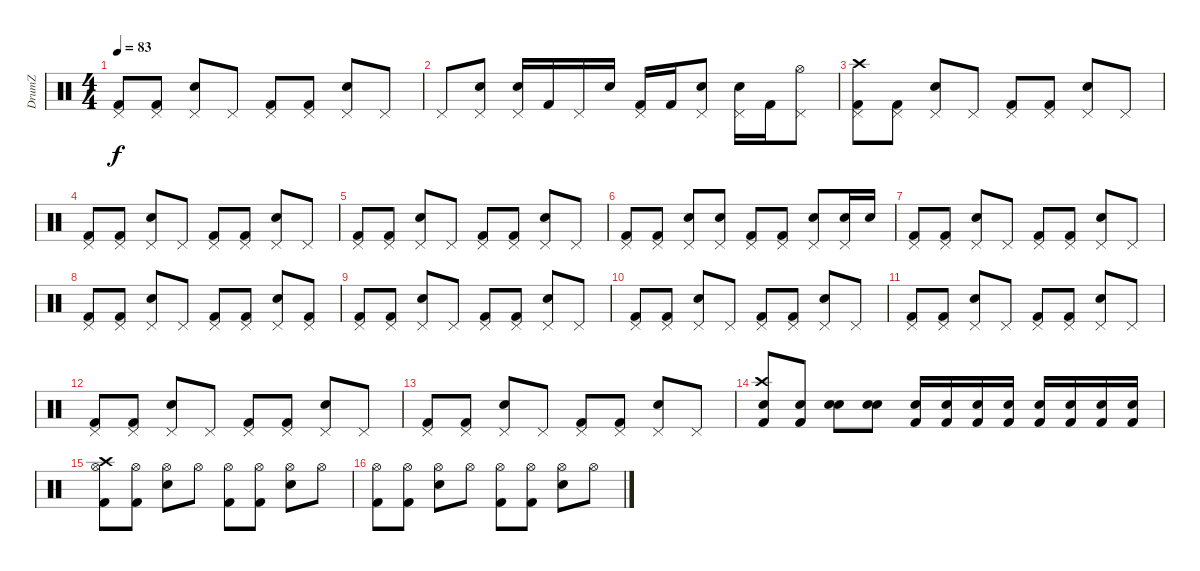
\track ("DrumZ" "DrumZ") {instrument percussion}
\staff {score}
\articulation defaults
\ts (4 4)
\tempo 83
\clef neutral
\ks c
("Pedal Hi-Hat (hit)" "Kick (hit) 2").8{dy f} ("Pedal Hi-Hat (hit)" "Kick (hit) 2").8 ("Pedal Hi-Hat (hit)" "Electric Snare (hit)").8 "Pedal Hi-Hat (hit)".8 ("Pedal Hi-Hat (hit)" "Kick (hit) 2").8 ("Pedal Hi-Hat (hit)" "Kick (hit) 2").8 ("Pedal Hi-Hat (hit)" "Electric Snare (hit)").8 "Pedal Hi-Hat (hit)".8 |
"Pedal Hi-Hat (hit)".8 ("Pedal Hi-Hat (hit)" "Electric Snare (hit)").8 ("Pedal Hi-Hat (hit)" "Electric Snare (hit)").16 "Kick (hit) 2".16 "Pedal Hi-Hat (hit)".16 "Electric Snare (hit)".16 ("Pedal Hi-Hat (hit)" "Kick (hit) 2").16 "Kick (hit) 2".16 ("Pedal Hi-Hat (hit)" "Electric Snare (hit)").8 ("Pedal Hi-Hat (hit)" "Electric Snare (hit)").16 "Kick (hit) 2".16 ("Pedal Hi-Hat (hit)" "Hi-Hat (open)").8 |
("Pedal Hi-Hat (hit)" "Crash high (hit)" "Kick (hit) 2").8 ("Pedal Hi-Hat (hit)" "Kick (hit) 2").8 ("Pedal Hi-Hat (hit)" "Electric Snare (hit)").8 "Pedal Hi-Hat (hit)".8 ("Pedal Hi-Hat (hit)" "Kick (hit) 2").8 ("Pedal Hi-Hat (hit)" "Kick (hit) 2").8 ("Pedal Hi-Hat (hit)" "Electric Snare (hit)").8 "Pedal Hi-Hat (hit)".8 |
("Pedal Hi-Hat (hit)" "Kick (hit) 2").8 ("Pedal Hi-Hat (hit)" "Kick (hit) 2").8 ("Pedal Hi-Hat (hit)" "Electric Snare (hit)").8 "Pedal Hi-Hat (hit)".8 ("Pedal Hi-Hat (hit)" "Kick (hit) 2").8 ("Pedal Hi-Hat (hit)" "Kick (hit) 2").8 ("Pedal Hi-Hat (hit)" "Electric Snare (hit)").8 "Pedal Hi-Hat (hit)".8 |
("Pedal Hi-Hat (hit)" "Kick (hit) 2").8 ("Pedal Hi-Hat (hit)" "Kick (hit) 2").8 ("Pedal Hi-Hat (hit)" "Electric Snare (hit)").8 "Pedal Hi-Hat (hit)".8 ("Pedal Hi-Hat (hit)" "Kick (hit) 2").8 ("Pedal Hi-Hat (hit)" "Kick (hit) 2").8 ("Pedal Hi-Hat (hit)" "Electric Snare (hit)").8 "Pedal Hi-Hat (hit)".8 |
("Pedal Hi-Hat (hit)" "Kick (hit) 2").8 ("Pedal Hi-Hat (hit)" "Kick (hit) 2").8 ("Pedal Hi-Hat (hit)" "Electric Snare (hit)").8 ("Pedal Hi-Hat (hit)" "Electric Snare (hit)").8 ("Pedal Hi-Hat (hit)" "Kick (hit) 2").8 ("Pedal Hi-Hat (hit)" "Kick (hit) 2").8 ("Pedal Hi-Hat (hit)" "Electric Snare (hit)").8 ("Pedal Hi-Hat (hit)" "Electric Snare (hit)").16 "Electric Snare (hit)".16 |
("Pedal Hi-Hat (hit)" "Kick (hit) 2").8 ("Pedal Hi-Hat (hit)" "Kick (hit) 2").8 ("Pedal Hi-Hat (hit)" "Electric Snare (hit)").8 "Pedal Hi-Hat (hit)".8 ("Pedal Hi-Hat (hit)" "Kick (hit) 2").8 ("Pedal Hi-Hat (hit)" "Kick (hit) 2").8 ("Pedal Hi-Hat (hit)" "Electric Snare (hit)").8 "Pedal Hi-Hat (hit)".8 |
("Pedal Hi-Hat (hit)" "Kick (hit) 2").8 ("Pedal Hi-Hat (hit)" "Kick (hit) 2").8 ("Pedal Hi-Hat (hit)" "Electric Snare (hit)").8 "Pedal Hi-Hat (hit)".8 ("Pedal Hi-Hat (hit)" "Kick (hit) 2").8 ("Pedal Hi-Hat (hit)" "Kick (hit) 2").8 ("Pedal Hi-Hat (hit)" "Electric Snare (hit)").8 ("Pedal Hi-Hat (hit)" "Kick (hit) 2").8 |
("Pedal Hi-Hat (hit)" "Kick (hit) 2").8 ("Pedal Hi-Hat (hit)" "Kick (hit) 2").8 ("Pedal Hi-Hat (hit)" "Electric Snare (hit)").8 "Pedal Hi-Hat (hit)".8 ("Pedal Hi-Hat (hit)" "Kick (hit) 2").8 ("Pedal Hi-Hat (hit)" "Kick (hit) 2").8 ("Pedal Hi-Hat (hit)" "Electric Snare (hit)").8 "Pedal Hi-Hat (hit)".8 |
("Pedal Hi-Hat (hit)" "Kick (hit) 2").8 ("Pedal Hi-Hat (hit)" "Kick (hit) 2").8 ("Pedal Hi-Hat (hit)" "Electric Snare (hit)").8 "Pedal Hi-Hat (hit)".8 ("Pedal Hi-Hat (hit)" "Kick (hit) 2").8 ("Pedal Hi-Hat (hit)" "Kick (hit) 2").8 ("Pedal Hi-Hat (hit)" "Electric Snare (hit)").8 "Pedal Hi-Hat (hit)".8 |
("Pedal Hi-Hat (hit)" "Kick (hit) 2").8 ("Pedal Hi-Hat (hit)" "Kick (hit) 2").8 ("Pedal Hi-Hat (hit)" "Electric Snare (hit)").8 "Pedal Hi-Hat (hit)".8 ("Pedal Hi-Hat (hit)" "Kick (hit) 2").8 ("Pedal Hi-Hat (hit)" "Kick (hit) 2").8 ("Pedal Hi-Hat (hit)" "Electric Snare (hit)").8 "Pedal Hi-Hat (hit)".8 |
("Pedal Hi-Hat (hit)" "Kick (hit) 2").8 ("Pedal Hi-Hat (hit)" "Kick (hit) 2").8 ("Pedal Hi-Hat (hit)" "Electric Snare (hit)").8 "Pedal Hi-Hat (hit)".8 ("Pedal Hi-Hat (hit)" "Kick (hit) 2").8 ("Pedal Hi-Hat (hit)" "Kick (hit) 2").8 ("Pedal Hi-Hat (hit)" "Electric Snare (hit)").8 "Pedal Hi-Hat (hit)".8 |
("Pedal Hi-Hat (hit)" "Kick (hit) 2").8 ("Pedal Hi-Hat (hit)" "Kick (hit) 2").8 ("Pedal Hi-Hat (hit)" "Electric Snare (hit)").8 "Pedal Hi-Hat (hit)".8 ("Pedal Hi-Hat (hit)" "Kick (hit) 2").8 ("Pedal Hi-Hat (hit)" "Kick (hit) 2").8 ("Pedal Hi-Hat (hit)" "Electric Snare (hit)").8 "Pedal Hi-Hat (hit)".8 |
("Snare (hit) 2" "Crash high (hit)" "Kick (hit) 2").8 ("Snare (hit) 2" "Kick (hit) 2").8 ("Snare (hit) 2" "Electric Snare (hit)").8 ("Snare (hit) 2" "Electric Snare (hit)").8 ("Snare (hit) 2" "Kick (hit) 2").16 ("Snare (hit) 2" "Kick (hit) 2").16 ("Snare (hit) 2" "Kick (hit) 2").16 ("Snare (hit) 2" "Kick (hit) 2").16 ("Snare (hit) 2" "Kick (hit) 2").16 ("Snare (hit) 2" "Kick (hit) 2").16 ("Snare (hit) 2" "Kick (hit) 2").16 ("Snare (hit) 2" "Kick (hit) 2").16 |
("Hi-Hat (open)" "Crash high (hit)" "Kick (hit) 2").8 ("Hi-Hat (open)" "Kick (hit) 2").8 ("Hi-Hat (open)" "Electric Snare (hit)").8 "Hi-Hat (open)".8 ("Hi-Hat (open)" "Kick (hit) 2").8 ("Hi-Hat (open)" "Kick (hit) 2").8 ("Hi-Hat (open)" "Electric Snare (hit)").8 "Hi-Hat (open)".8 |
("Hi-Hat (open)" "Kick (hit) 2").8 ("Hi-Hat (open)" "Kick (hit) 2").8 ("Hi-Hat (open)" "Electric Snare (hit)").8 "Hi-Hat (open)".8 ("Hi-Hat (open)" "Kick (hit) 2").8 ("Hi-Hat (open)" "Kick (hit) 2").8 ("Hi-Hat (open)" "Electric Snare (hit)").8 "Hi-Hat (open)".8
